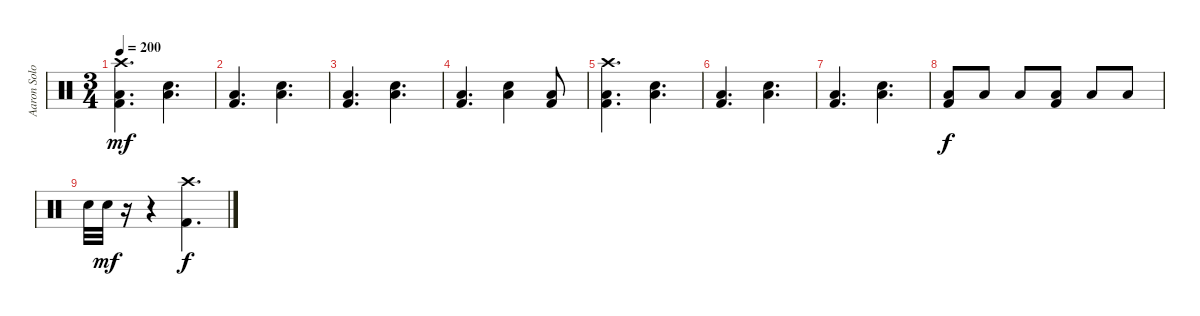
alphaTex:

\track ("Aaron Solowoniuk" "Aaron Solo") {instrument percussion}
\staff {score}
\articulation defaults
\ts (3 4)
\tempo 200
\clef neutral
\ks c
("Crash high (hit)" "Low Floor Tom (hit)" "Kick (hit) 2").4{d dy mf} ("Low Floor Tom (hit)" "Snare (hit) 2").4{d} |
("Low Floor Tom (hit)" "Kick (hit) 2").4{d} ("Low Floor Tom (hit)" "Snare (hit) 2").4{d} |
("Low Floor Tom (hit)" "Kick (hit) 2").4{d} ("Low Floor Tom (hit)" "Snare (hit) 2").4{d} |
("Low Floor Tom (hit)" "Kick (hit) 2").4{d} ("Low Floor Tom (hit)" "Snare (hit) 2").4 ("Low Tom (hit)" "Kick (hit) 2").8 |
("Crash high (hit)" "Low Floor Tom (hit)" "Kick (hit) 2").4{d} ("Low Floor Tom (hit)" "Snare (hit) 2").4{d} |
("Low Floor Tom (hit)" "Kick (hit) 2").4{d} ("Low Floor Tom (hit)" "Snare (hit) 2").4{d} |
("Low Floor Tom (hit)" "Kick (hit) 2").4{d} ("Low Floor Tom (hit)" "Snare (hit) 2").4{d} |
("Low Tom (hit)" "Kick (hit) 2").8{dy f} "Low Tom (hit)".8 "Low Tom (hit)".8 ("Low Tom (hit)" "Kick (hit) 2").8 "Low Tom (hit)".8 "Low Tom (hit)".8 |
"Snare (hit) 2".32 "Snare (hit) 2".32{dy mf} r.16 r.4 ("Crash high (hit)" "Kick (hit) 2").4{d dy f}
